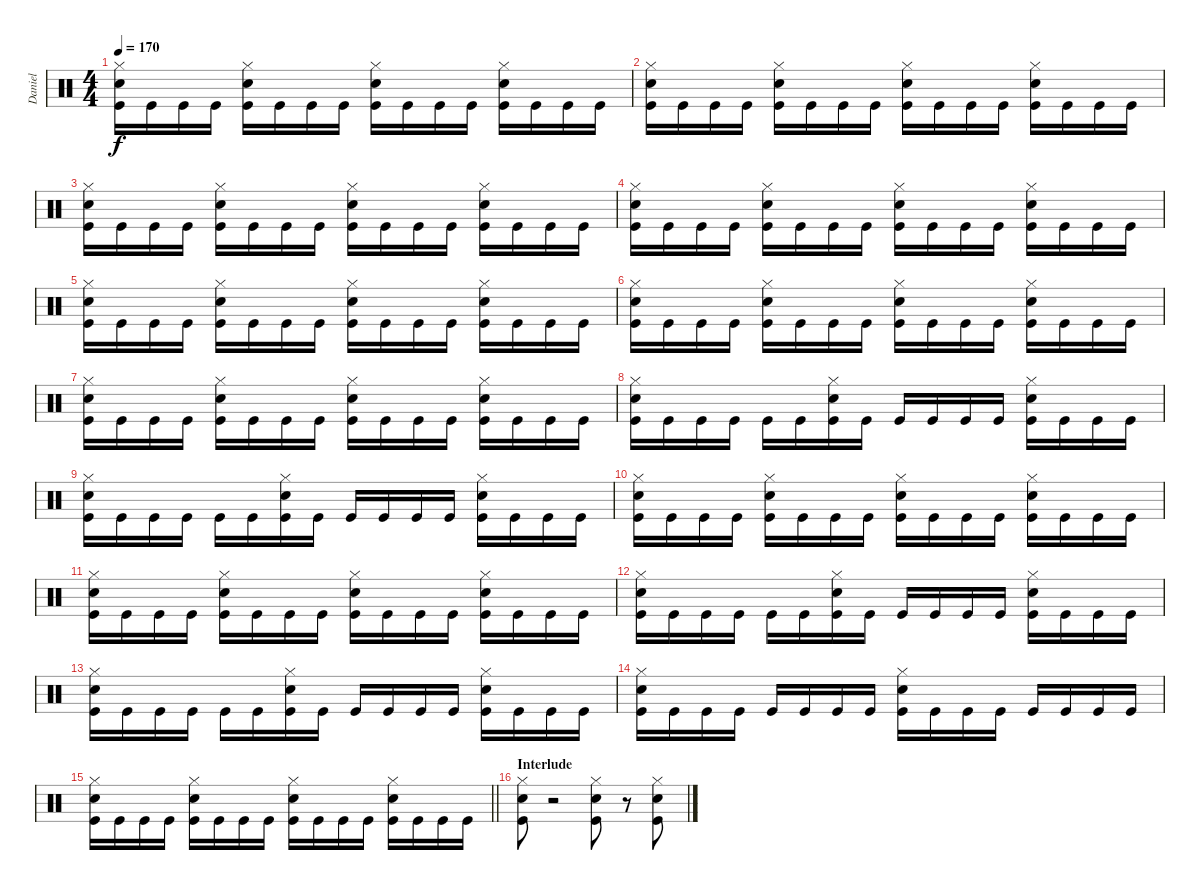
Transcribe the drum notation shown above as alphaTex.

\track ("Daniel" "Daniel") {instrument percussion}
\staff {score}
\articulation defaults
\ts (4 4)
\tempo 170
\clef neutral
\ks c
("Kick (hit)" "Snare (hit) 2" "Hi-Hat (closed)").16{dy f} "Kick (hit)".16 "Kick (hit)".16 "Kick (hit)".16 ("Kick (hit)" "Snare (hit) 2" "Hi-Hat (closed)").16 "Kick (hit)".16 "Kick (hit)".16 "Kick (hit)".16 ("Kick (hit)" "Snare (hit) 2" "Hi-Hat (closed)").16 "Kick (hit)".16 "Kick (hit)".16 "Kick (hit)".16 ("Kick (hit)" "Snare (hit) 2" "Hi-Hat (closed)").16 "Kick (hit)".16 "Kick (hit)".16 "Kick (hit)".16 |
("Kick (hit)" "Snare (hit) 2" "Hi-Hat (closed)").16 "Kick (hit)".16 "Kick (hit)".16 "Kick (hit)".16 ("Kick (hit)" "Snare (hit) 2" "Hi-Hat (closed)").16 "Kick (hit)".16 "Kick (hit)".16 "Kick (hit)".16 ("Kick (hit)" "Snare (hit) 2" "Hi-Hat (closed)").16 "Kick (hit)".16 "Kick (hit)".16 "Kick (hit)".16 ("Kick (hit)" "Snare (hit) 2" "Hi-Hat (closed)").16 "Kick (hit)".16 "Kick (hit)".16 "Kick (hit)".16 |
("Kick (hit)" "Snare (hit) 2" "Hi-Hat (closed)").16 "Kick (hit)".16 "Kick (hit)".16 "Kick (hit)".16 ("Kick (hit)" "Snare (hit) 2" "Hi-Hat (closed)").16 "Kick (hit)".16 "Kick (hit)".16 "Kick (hit)".16 ("Kick (hit)" "Snare (hit) 2" "Hi-Hat (closed)").16 "Kick (hit)".16 "Kick (hit)".16 "Kick (hit)".16 ("Kick (hit)" "Snare (hit) 2" "Hi-Hat (closed)").16 "Kick (hit)".16 "Kick (hit)".16 "Kick (hit)".16 |
("Kick (hit)" "Snare (hit) 2" "Hi-Hat (closed)").16 "Kick (hit)".16 "Kick (hit)".16 "Kick (hit)".16 ("Kick (hit)" "Snare (hit) 2" "Hi-Hat (closed)").16 "Kick (hit)".16 "Kick (hit)".16 "Kick (hit)".16 ("Kick (hit)" "Snare (hit) 2" "Hi-Hat (closed)").16 "Kick (hit)".16 "Kick (hit)".16 "Kick (hit)".16 ("Kick (hit)" "Snare (hit) 2" "Hi-Hat (closed)").16 "Kick (hit)".16 "Kick (hit)".16 "Kick (hit)".16 |
("Kick (hit)" "Snare (hit) 2" "Hi-Hat (closed)").16 "Kick (hit)".16 "Kick (hit)".16 "Kick (hit)".16 ("Kick (hit)" "Snare (hit) 2" "Hi-Hat (closed)").16 "Kick (hit)".16 "Kick (hit)".16 "Kick (hit)".16 ("Kick (hit)" "Snare (hit) 2" "Hi-Hat (closed)").16 "Kick (hit)".16 "Kick (hit)".16 "Kick (hit)".16 ("Kick (hit)" "Snare (hit) 2" "Hi-Hat (closed)").16 "Kick (hit)".16 "Kick (hit)".16 "Kick (hit)".16 |
("Kick (hit)" "Snare (hit) 2" "Hi-Hat (closed)").16 "Kick (hit)".16 "Kick (hit)".16 "Kick (hit)".16 ("Kick (hit)" "Snare (hit) 2" "Hi-Hat (closed)").16 "Kick (hit)".16 "Kick (hit)".16 "Kick (hit)".16 ("Kick (hit)" "Snare (hit) 2" "Hi-Hat (closed)").16 "Kick (hit)".16 "Kick (hit)".16 "Kick (hit)".16 ("Kick (hit)" "Snare (hit) 2" "Hi-Hat (closed)").16 "Kick (hit)".16 "Kick (hit)".16 "Kick (hit)".16 |
("Kick (hit)" "Snare (hit) 2" "Hi-Hat (closed)").16 "Kick (hit)".16 "Kick (hit)".16 "Kick (hit)".16 ("Kick (hit)" "Snare (hit) 2" "Hi-Hat (closed)").16 "Kick (hit)".16 "Kick (hit)".16 "Kick (hit)".16 ("Kick (hit)" "Snare (hit) 2" "Hi-Hat (closed)").16 "Kick (hit)".16 "Kick (hit)".16 "Kick (hit)".16 ("Kick (hit)" "Snare (hit) 2" "Hi-Hat (closed)").16 "Kick (hit)".16 "Kick (hit)".16 "Kick (hit)".16 |
("Kick (hit)" "Snare (hit) 2" "Hi-Hat (closed)").16 "Kick (hit)".16 "Kick (hit)".16 "Kick (hit)".16 "Kick (hit)".16 "Kick (hit)".16 ("Kick (hit)" "Snare (hit) 2" "Hi-Hat (closed)").16 "Kick (hit)".16 "Kick (hit)".16 "Kick (hit)".16 "Kick (hit)".16 "Kick (hit)".16 ("Kick (hit)" "Snare (hit) 2" "Hi-Hat (closed)").16 "Kick (hit)".16 "Kick (hit)".16 "Kick (hit)".16 |
("Kick (hit)" "Snare (hit) 2" "Hi-Hat (closed)").16 "Kick (hit)".16 "Kick (hit)".16 "Kick (hit)".16 "Kick (hit)".16 "Kick (hit)".16 ("Kick (hit)" "Snare (hit) 2" "Hi-Hat (closed)").16 "Kick (hit)".16 "Kick (hit)".16 "Kick (hit)".16 "Kick (hit)".16 "Kick (hit)".16 ("Kick (hit)" "Snare (hit) 2" "Hi-Hat (closed)").16 "Kick (hit)".16 "Kick (hit)".16 "Kick (hit)".16 |
("Kick (hit)" "Snare (hit) 2" "Hi-Hat (closed)").16 "Kick (hit)".16 "Kick (hit)".16 "Kick (hit)".16 ("Kick (hit)" "Snare (hit) 2" "Hi-Hat (closed)").16 "Kick (hit)".16 "Kick (hit)".16 "Kick (hit)".16 ("Kick (hit)" "Snare (hit) 2" "Hi-Hat (closed)").16 "Kick (hit)".16 "Kick (hit)".16 "Kick (hit)".16 ("Kick (hit)" "Snare (hit) 2" "Hi-Hat (closed)").16 "Kick (hit)".16 "Kick (hit)".16 "Kick (hit)".16 |
("Kick (hit)" "Snare (hit) 2" "Hi-Hat (closed)").16 "Kick (hit)".16 "Kick (hit)".16 "Kick (hit)".16 ("Kick (hit)" "Snare (hit) 2" "Hi-Hat (closed)").16 "Kick (hit)".16 "Kick (hit)".16 "Kick (hit)".16 ("Kick (hit)" "Snare (hit) 2" "Hi-Hat (closed)").16 "Kick (hit)".16 "Kick (hit)".16 "Kick (hit)".16 ("Kick (hit)" "Snare (hit) 2" "Hi-Hat (closed)").16 "Kick (hit)".16 "Kick (hit)".16 "Kick (hit)".16 |
("Kick (hit)" "Snare (hit) 2" "Hi-Hat (closed)").16 "Kick (hit)".16 "Kick (hit)".16 "Kick (hit)".16 "Kick (hit)".16 "Kick (hit)".16 ("Kick (hit)" "Snare (hit) 2" "Hi-Hat (closed)").16 "Kick (hit)".16 "Kick (hit)".16 "Kick (hit)".16 "Kick (hit)".16 "Kick (hit)".16 ("Kick (hit)" "Snare (hit) 2" "Hi-Hat (closed)").16 "Kick (hit)".16 "Kick (hit)".16 "Kick (hit)".16 |
("Kick (hit)" "Snare (hit) 2" "Hi-Hat (closed)").16 "Kick (hit)".16 "Kick (hit)".16 "Kick (hit)".16 "Kick (hit)".16 "Kick (hit)".16 ("Kick (hit)" "Snare (hit) 2" "Hi-Hat (closed)").16 "Kick (hit)".16 "Kick (hit)".16 "Kick (hit)".16 "Kick (hit)".16 "Kick (hit)".16 ("Kick (hit)" "Snare (hit) 2" "Hi-Hat (closed)").16 "Kick (hit)".16 "Kick (hit)".16 "Kick (hit)".16 |
("Kick (hit)" "Snare (hit) 2" "Hi-Hat (closed)").16 "Kick (hit)".16 "Kick (hit)".16 "Kick (hit)".16 "Kick (hit)".16 "Kick (hit)".16 "Kick (hit)".16 "Kick (hit)".16 ("Kick (hit)" "Snare (hit) 2" "Hi-Hat (closed)").16 "Kick (hit)".16 "Kick (hit)".16 "Kick (hit)".16 "Kick (hit)".16 "Kick (hit)".16 "Kick (hit)".16 "Kick (hit)".16 |
\barLineRight lightlight
("Kick (hit)" "Snare (hit) 2" "Hi-Hat (closed)").16 "Kick (hit)".16 "Kick (hit)".16 "Kick (hit)".16 ("Kick (hit)" "Snare (hit) 2" "Hi-Hat (closed)").16 "Kick (hit)".16 "Kick (hit)".16 "Kick (hit)".16 ("Kick (hit)" "Snare (hit) 2" "Hi-Hat (closed)").16 "Kick (hit)".16 "Kick (hit)".16 "Kick (hit)".16 ("Kick (hit)" "Snare (hit) 2" "Hi-Hat (closed)").16 "Kick (hit)".16 "Kick (hit)".16 "Kick (hit)".16 |
\section ("" "Interlude")
("Kick (hit)" "Snare (hit) 2" "Hi-Hat (closed)").8 r.2 ("Kick (hit)" "Snare (hit) 2" "Hi-Hat (closed)").8 r.8 ("Kick (hit)" "Snare (hit) 2" "Hi-Hat (closed)").8
